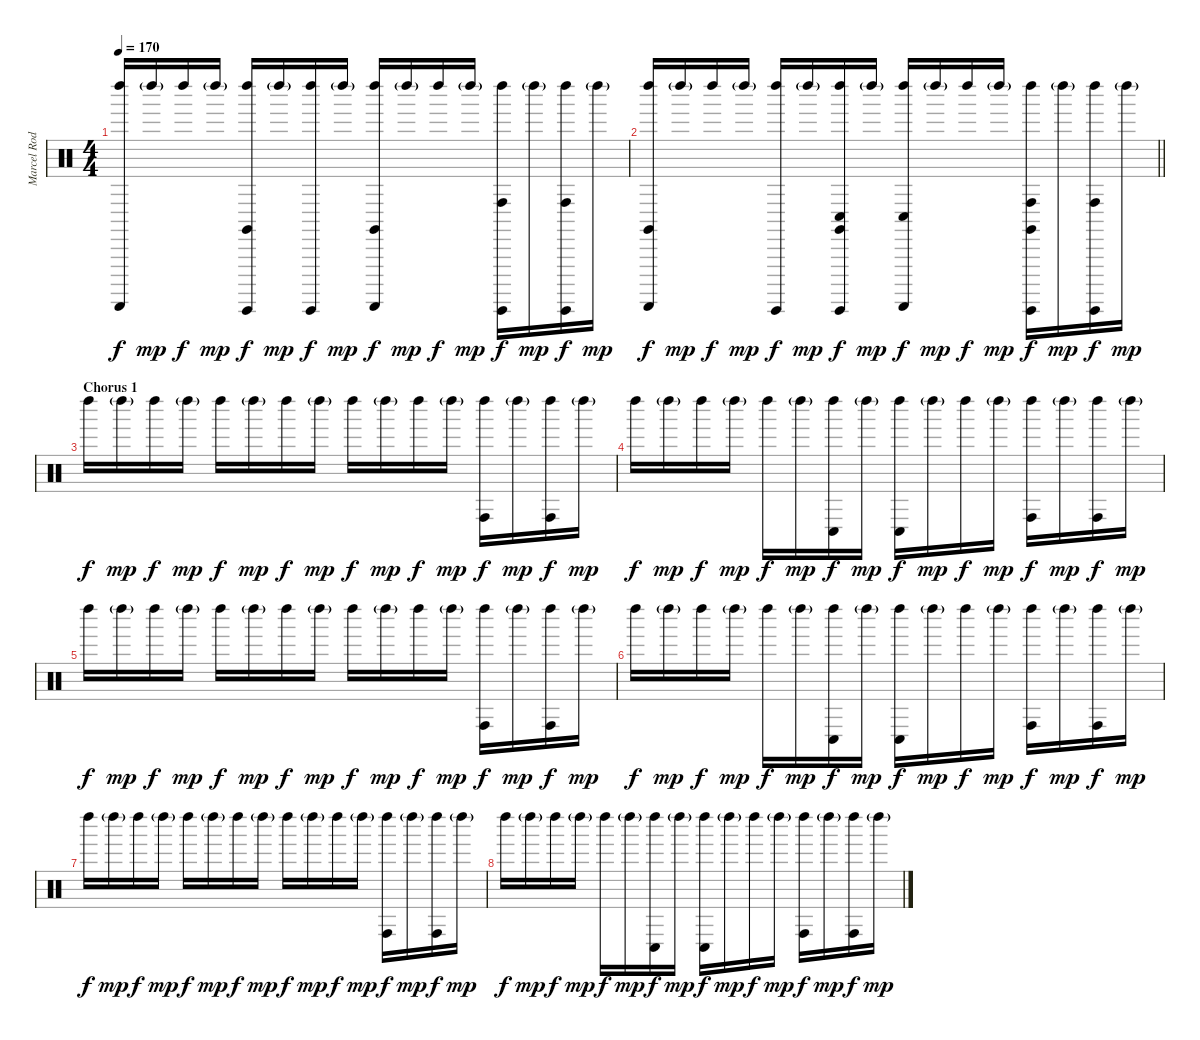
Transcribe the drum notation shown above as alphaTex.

\track ("Marcel Rodriguez-Lopez/Adrian Terrazas [" "Marcel Rod") {instrument percussion}
\staff {score}
\articulation defaults
\ts (4 4)
\tempo 170
\clef neutral
\ks c
("Guiro (scrap-return)" "Left Maraca (hit)").16{dy f} "Left Maraca (hit)"{g}.16{dy mp} "Left Maraca (hit)".16{dy f} "Left Maraca (hit)"{g}.16{dy mp} ("Guiro (hit)" "Left Maraca (hit)" "Claves (hit)").16{dy f} "Left Maraca (hit)"{g}.16{dy mp} ("Guiro (hit)" "Left Maraca (hit)").16{dy f} "Left Maraca (hit)"{g}.16{dy mp} ("Guiro (scrap-return)" "Left Maraca (hit)" "Claves (hit)").16{dy f} "Left Maraca (hit)"{g}.16{dy mp} "Left Maraca (hit)".16{dy f} "Left Maraca (hit)"{g}.16{dy mp} ("Guiro (hit)" "Left Maraca (hit)" "Conga high (hit)").16{dy f} "Left Maraca (hit)"{g}.16{dy mp} ("Guiro (hit)" "Left Maraca (hit)" "Conga high (hit)").16{dy f} "Left Maraca (hit)"{g}.16{dy mp} |
\barLineRight lightlight
("Guiro (scrap-return)" "Left Maraca (hit)" "Claves (hit)").16{dy f} "Left Maraca (hit)"{g}.16{dy mp} "Left Maraca (hit)".16{dy f} "Left Maraca (hit)"{g}.16{dy mp} ("Guiro (hit)" "Left Maraca (hit)").16{dy f} "Left Maraca (hit)"{g}.16{dy mp} ("Guiro (hit)" "Left Maraca (hit)" "Claves (hit)" "Conga low (hit)").16{dy f} "Left Maraca (hit)"{g}.16{dy mp} ("Guiro (scrap-return)" "Left Maraca (hit)" "Conga low (hit)").16{dy f} "Left Maraca (hit)"{g}.16{dy mp} "Left Maraca (hit)".16{dy f} "Left Maraca (hit)"{g}.16{dy mp} ("Guiro (hit)" "Left Maraca (hit)" "Claves (hit)" "Conga high (hit)").16{dy f} "Left Maraca (hit)"{g}.16{dy mp} ("Guiro (hit)" "Left Maraca (hit)" "Conga high (hit)").16{dy f} "Left Maraca (hit)"{g}.16{dy mp} |
\section ("" "Chorus 1")
"Left Maraca (hit)".16{dy f} "Left Maraca (hit)"{g}.16{dy mp} "Left Maraca (hit)".16{dy f} "Left Maraca (hit)"{g}.16{dy mp} "Left Maraca (hit)".16{dy f} "Left Maraca (hit)"{g}.16{dy mp} "Left Maraca (hit)".16{dy f} "Left Maraca (hit)"{g}.16{dy mp} "Left Maraca (hit)".16{dy f} "Left Maraca (hit)"{g}.16{dy mp} "Left Maraca (hit)".16{dy f} "Left Maraca (hit)"{g}.16{dy mp} ("Left Maraca (hit)" "Conga high (hit)").16{dy f} "Left Maraca (hit)"{g}.16{dy mp} ("Left Maraca (hit)" "Conga high (hit)").16{dy f} "Left Maraca (hit)"{g}.16{dy mp} |
"Left Maraca (hit)".16{dy f} "Left Maraca (hit)"{g}.16{dy mp} "Left Maraca (hit)".16{dy f} "Left Maraca (hit)"{g}.16{dy mp} "Left Maraca (hit)".16{dy f} "Left Maraca (hit)"{g}.16{dy mp} ("Left Maraca (hit)" "Conga low (hit)").16{dy f} "Left Maraca (hit)"{g}.16{dy mp} ("Left Maraca (hit)" "Conga low (hit)").16{dy f} "Left Maraca (hit)"{g}.16{dy mp} "Left Maraca (hit)".16{dy f} "Left Maraca (hit)"{g}.16{dy mp} ("Left Maraca (hit)" "Conga high (hit)").16{dy f} "Left Maraca (hit)"{g}.16{dy mp} ("Left Maraca (hit)" "Conga high (hit)").16{dy f} "Left Maraca (hit)"{g}.16{dy mp} |
"Left Maraca (hit)".16{dy f} "Left Maraca (hit)"{g}.16{dy mp} "Left Maraca (hit)".16{dy f} "Left Maraca (hit)"{g}.16{dy mp} "Left Maraca (hit)".16{dy f} "Left Maraca (hit)"{g}.16{dy mp} "Left Maraca (hit)".16{dy f} "Left Maraca (hit)"{g}.16{dy mp} "Left Maraca (hit)".16{dy f} "Left Maraca (hit)"{g}.16{dy mp} "Left Maraca (hit)".16{dy f} "Left Maraca (hit)"{g}.16{dy mp} ("Left Maraca (hit)" "Conga high (hit)").16{dy f} "Left Maraca (hit)"{g}.16{dy mp} ("Left Maraca (hit)" "Conga high (hit)").16{dy f} "Left Maraca (hit)"{g}.16{dy mp} |
"Left Maraca (hit)".16{dy f} "Left Maraca (hit)"{g}.16{dy mp} "Left Maraca (hit)".16{dy f} "Left Maraca (hit)"{g}.16{dy mp} "Left Maraca (hit)".16{dy f} "Left Maraca (hit)"{g}.16{dy mp} ("Left Maraca (hit)" "Conga low (hit)").16{dy f} "Left Maraca (hit)"{g}.16{dy mp} ("Left Maraca (hit)" "Conga low (hit)").16{dy f} "Left Maraca (hit)"{g}.16{dy mp} "Left Maraca (hit)".16{dy f} "Left Maraca (hit)"{g}.16{dy mp} ("Left Maraca (hit)" "Conga high (hit)").16{dy f} "Left Maraca (hit)"{g}.16{dy mp} ("Left Maraca (hit)" "Conga high (hit)").16{dy f} "Left Maraca (hit)"{g}.16{dy mp} |
"Left Maraca (hit)".16{dy f} "Left Maraca (hit)"{g}.16{dy mp} "Left Maraca (hit)".16{dy f} "Left Maraca (hit)"{g}.16{dy mp} "Left Maraca (hit)".16{dy f} "Left Maraca (hit)"{g}.16{dy mp} "Left Maraca (hit)".16{dy f} "Left Maraca (hit)"{g}.16{dy mp} "Left Maraca (hit)".16{dy f} "Left Maraca (hit)"{g}.16{dy mp} "Left Maraca (hit)".16{dy f} "Left Maraca (hit)"{g}.16{dy mp} ("Left Maraca (hit)" "Conga high (hit)").16{dy f} "Left Maraca (hit)"{g}.16{dy mp} ("Left Maraca (hit)" "Conga high (hit)").16{dy f} "Left Maraca (hit)"{g}.16{dy mp} |
"Left Maraca (hit)".16{dy f} "Left Maraca (hit)"{g}.16{dy mp} "Left Maraca (hit)".16{dy f} "Left Maraca (hit)"{g}.16{dy mp} "Left Maraca (hit)".16{dy f} "Left Maraca (hit)"{g}.16{dy mp} ("Left Maraca (hit)" "Conga low (hit)").16{dy f} "Left Maraca (hit)"{g}.16{dy mp} ("Left Maraca (hit)" "Conga low (hit)").16{dy f} "Left Maraca (hit)"{g}.16{dy mp} "Left Maraca (hit)".16{dy f} "Left Maraca (hit)"{g}.16{dy mp} ("Left Maraca (hit)" "Conga high (hit)").16{dy f} "Left Maraca (hit)"{g}.16{dy mp} ("Left Maraca (hit)" "Conga high (hit)").16{dy f} "Left Maraca (hit)"{g}.16{dy mp}
